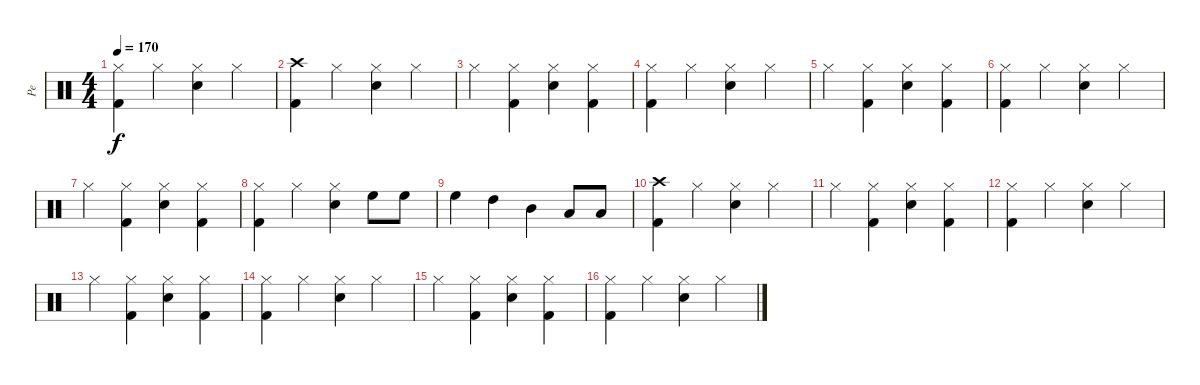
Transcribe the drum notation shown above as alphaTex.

\track ("Pe" "Pe") {instrument percussion}
\staff {score}
\articulation defaults
\ts (4 4)
\tempo 170
\clef neutral
\ks c
("Kick (hit) 2" "Hi-Hat (closed)").4{dy f} "Hi-Hat (closed)".4 ("Snare (hit) 2" "Hi-Hat (closed)").4 "Hi-Hat (closed)".4 |
("Kick (hit) 2" "Crash high (hit)").4 "Hi-Hat (closed)".4 ("Snare (hit) 2" "Hi-Hat (closed)").4 "Hi-Hat (closed)".4 |
"Hi-Hat (closed)".4 ("Kick (hit) 2" "Hi-Hat (closed)").4 ("Snare (hit) 2" "Hi-Hat (closed)").4 ("Kick (hit) 2" "Hi-Hat (closed)").4 |
("Kick (hit) 2" "Hi-Hat (closed)").4 "Hi-Hat (closed)".4 ("Snare (hit) 2" "Hi-Hat (closed)").4 "Hi-Hat (closed)".4 |
"Hi-Hat (closed)".4 ("Kick (hit) 2" "Hi-Hat (closed)").4 ("Snare (hit) 2" "Hi-Hat (closed)").4 ("Kick (hit) 2" "Hi-Hat (closed)").4 |
("Kick (hit) 2" "Hi-Hat (closed)").4 "Hi-Hat (closed)".4 ("Snare (hit) 2" "Hi-Hat (closed)").4 "Hi-Hat (closed)".4 |
"Hi-Hat (closed)".4 ("Kick (hit) 2" "Hi-Hat (closed)").4 ("Snare (hit) 2" "Hi-Hat (closed)").4 ("Kick (hit) 2" "Hi-Hat (closed)").4 |
("Kick (hit) 2" "Hi-Hat (closed)").4 "Hi-Hat (closed)".4 ("Snare (hit) 2" "Hi-Hat (closed)").4 "High Floor Tom (hit)".8 "High Floor Tom (hit)".8 |
"High Floor Tom (hit)".4 "High Tom (hit)".4 "Mid Tom (hit)".4 "Low Tom (hit)".8 "Low Tom (hit)".8 |
("Kick (hit) 2" "Crash high (hit)").4 "Hi-Hat (closed)".4 ("Snare (hit) 2" "Hi-Hat (closed)").4 "Hi-Hat (closed)".4 |
"Hi-Hat (closed)".4 ("Kick (hit) 2" "Hi-Hat (closed)").4 ("Snare (hit) 2" "Hi-Hat (closed)").4 ("Kick (hit) 2" "Hi-Hat (closed)").4 |
("Kick (hit) 2" "Hi-Hat (closed)").4 "Hi-Hat (closed)".4 ("Snare (hit) 2" "Hi-Hat (closed)").4 "Hi-Hat (closed)".4 |
"Hi-Hat (closed)".4 ("Kick (hit) 2" "Hi-Hat (closed)").4 ("Snare (hit) 2" "Hi-Hat (closed)").4 ("Kick (hit) 2" "Hi-Hat (closed)").4 |
("Kick (hit) 2" "Hi-Hat (closed)").4 "Hi-Hat (closed)".4 ("Snare (hit) 2" "Hi-Hat (closed)").4 "Hi-Hat (closed)".4 |
"Hi-Hat (closed)".4 ("Kick (hit) 2" "Hi-Hat (closed)").4 ("Snare (hit) 2" "Hi-Hat (closed)").4 ("Kick (hit) 2" "Hi-Hat (closed)").4 |
("Kick (hit) 2" "Hi-Hat (closed)").4 "Hi-Hat (closed)".4 ("Snare (hit) 2" "Hi-Hat (closed)").4 "Hi-Hat (closed)".4
